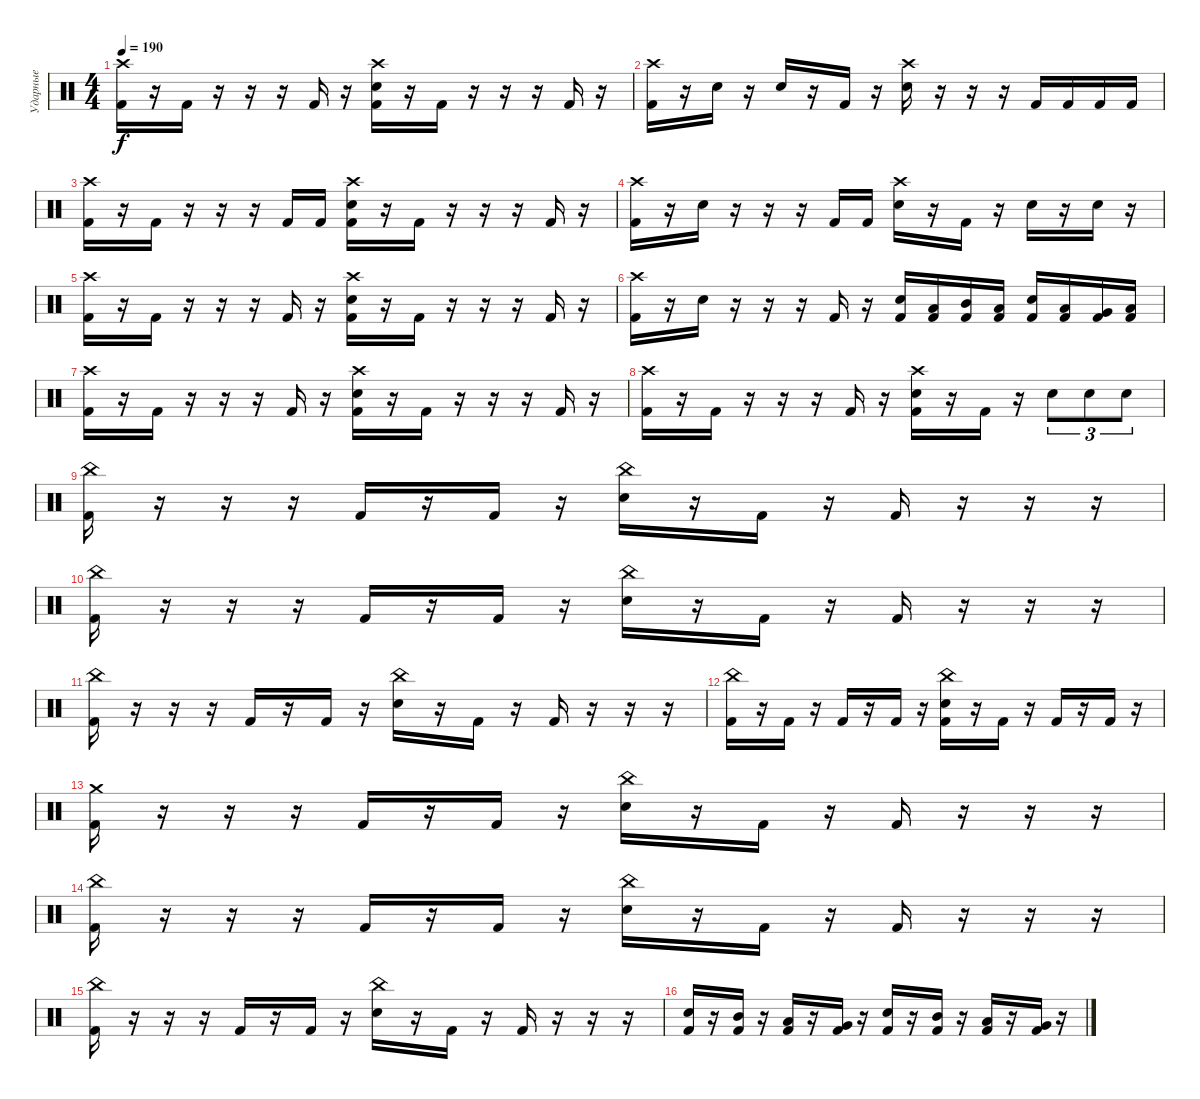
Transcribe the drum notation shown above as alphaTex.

\track ("Ударные" "Ударные") {instrument percussion}
\staff {score}
\articulation defaults
\ts (4 4)
\tempo 190
\clef neutral
\ks c
("Crash high (hit)" "Kick (hit) 2").16{dy f} r.16 "Kick (hit) 2".16 r.16 r.16 r.16 "Kick (hit) 2".16 r.16 ("Snare (hit) 2" "Kick (hit) 2" "Crash high (hit)").16 r.16 "Kick (hit) 2".16 r.16 r.16 r.16 "Kick (hit) 2".16 r.16 |
("Crash high (hit)" "Kick (hit) 2").16 r.16 "Snare (hit) 2".16 r.16 "Snare (hit) 2".16 r.16 "Kick (hit) 2".16 r.16 ("Snare (hit) 2" "Crash high (hit)").16 r.16 r.16 r.16 "Kick (hit) 2".16 "Kick (hit) 2".16 "Kick (hit) 2".16 "Kick (hit) 2".16 |
("Crash high (hit)" "Kick (hit) 2").16 r.16 "Kick (hit) 2".16 r.16 r.16 r.16 "Kick (hit) 2".16 "Kick (hit) 2".16 ("Snare (hit) 2" "Kick (hit) 2" "Crash high (hit)").16 r.16 "Kick (hit) 2".16 r.16 r.16 r.16 "Kick (hit) 2".16 r.16 |
("Crash high (hit)" "Kick (hit) 2").16 r.16 "Snare (hit) 2".16 r.16 r.16 r.16 "Kick (hit) 2".16 "Kick (hit) 2".16 ("Snare (hit) 2" "Crash high (hit)").16 r.16 "Kick (hit) 2".16 r.16 "Snare (hit) 2".16 r.16 "Snare (hit) 2".16 r.16 |
("Crash high (hit)" "Kick (hit) 2").16 r.16 "Kick (hit) 2".16 r.16 r.16 r.16 "Kick (hit) 2".16 r.16 ("Snare (hit) 2" "Kick (hit) 2" "Crash high (hit)").16 r.16 "Kick (hit) 2".16 r.16 r.16 r.16 "Kick (hit) 2".16 r.16 |
("Crash high (hit)" "Kick (hit) 2").16 r.16 "Snare (hit) 2".16 r.16 r.16 r.16 "Kick (hit) 2".16 r.16 ("Snare (hit) 2" "Kick (hit) 2").16 ("Low Tom (hit)" "Kick (hit) 2").16 ("Mid Tom (hit)" "Kick (hit) 2").16 ("Low Tom (hit)" "Kick (hit) 2").16 ("Snare (hit) 2" "Kick (hit) 2").16 ("Low Tom (hit)" "Kick (hit) 2").16 ("Very Low Tom (hit)" "Kick (hit) 2").16 ("Low Floor Tom (hit)" "Kick (hit) 2").16 |
("Crash high (hit)" "Kick (hit) 2").16 r.16 "Kick (hit) 2".16 r.16 r.16 r.16 "Kick (hit) 2".16 r.16 ("Snare (hit) 2" "Kick (hit) 2" "Crash high (hit)").16 r.16 "Kick (hit) 2".16 r.16 r.16 r.16 "Kick (hit) 2".16 r.16 |
("Crash high (hit)" "Kick (hit) 2").16 r.16 "Kick (hit) 2".16 r.16 r.16 r.16 "Kick (hit) 2".16 r.16 ("Snare (hit) 2" "Kick (hit) 2" "Crash high (hit)").16 r.16 "Kick (hit) 2".16 r.16 "Snare (hit) 2".8{tu (3 2)} "Snare (hit) 2".8{tu (3 2)} "Snare (hit) 2".8{tu (3 2)} |
("China (hit)" "Kick (hit) 2").16 r.16 r.16 r.16 "Kick (hit) 2".16 r.16 "Kick (hit) 2".16 r.16 ("China (hit)" "Snare (hit) 2").16 r.16 "Kick (hit) 2".16 r.16 "Kick (hit) 2".16 r.16 r.16 r.16 |
("China (hit)" "Kick (hit) 2").16 r.16 r.16 r.16 "Kick (hit) 2".16 r.16 "Kick (hit) 2".16 r.16 ("China (hit)" "Snare (hit) 2").16 r.16 "Kick (hit) 2".16 r.16 "Kick (hit) 2".16 r.16 r.16 r.16 |
("China (hit)" "Kick (hit) 2").16 r.16 r.16 r.16 "Kick (hit) 2".16 r.16 "Kick (hit) 2".16 r.16 ("China (hit)" "Snare (hit) 2").16 r.16 "Kick (hit) 2".16 r.16 "Kick (hit) 2".16 r.16 r.16 r.16 |
("China (hit)" "Kick (hit) 2").16 r.16 "Kick (hit) 2".16 r.16 "Kick (hit) 2".16 r.16 "Kick (hit) 2".16 r.16 ("Snare (hit) 2" "China (hit)" "Kick (hit) 2").16 r.16 "Kick (hit) 2".16 r.16 "Kick (hit) 2".16 r.16 "Kick (hit) 2".16 r.16 |
("Crash medium (hit)" "Kick (hit) 2").16 r.16 r.16 r.16 "Kick (hit) 2".16 r.16 "Kick (hit) 2".16 r.16 ("China (hit)" "Snare (hit) 2").16 r.16 "Kick (hit) 2".16 r.16 "Kick (hit) 2".16 r.16 r.16 r.16 |
("China (hit)" "Kick (hit) 2").16 r.16 r.16 r.16 "Kick (hit) 2".16 r.16 "Kick (hit) 2".16 r.16 ("China (hit)" "Snare (hit) 2").16 r.16 "Kick (hit) 2".16 r.16 "Kick (hit) 2".16 r.16 r.16 r.16 |
("China (hit)" "Kick (hit) 2").16 r.16 r.16 r.16 "Kick (hit) 2".16 r.16 "Kick (hit) 2".16 r.16 ("China (hit)" "Snare (hit) 2").16 r.16 "Kick (hit) 2".16 r.16 "Kick (hit) 2".16 r.16 r.16 r.16 |
("Snare (hit) 2" "Kick (hit) 2").16 r.16 ("Mid Tom (hit)" "Kick (hit) 2").16 r.16 ("Low Tom (hit)" "Kick (hit) 2").16 r.16 ("Very Low Tom (hit)" "Kick (hit) 2").16 r.16 ("Snare (hit) 2" "Kick (hit) 2").16 r.16 ("Mid Tom (hit)" "Kick (hit) 2").16 r.16 ("Low Tom (hit)" "Kick (hit) 2").16 r.16 ("Very Low Tom (hit)" "Kick (hit) 2").16 r.16
